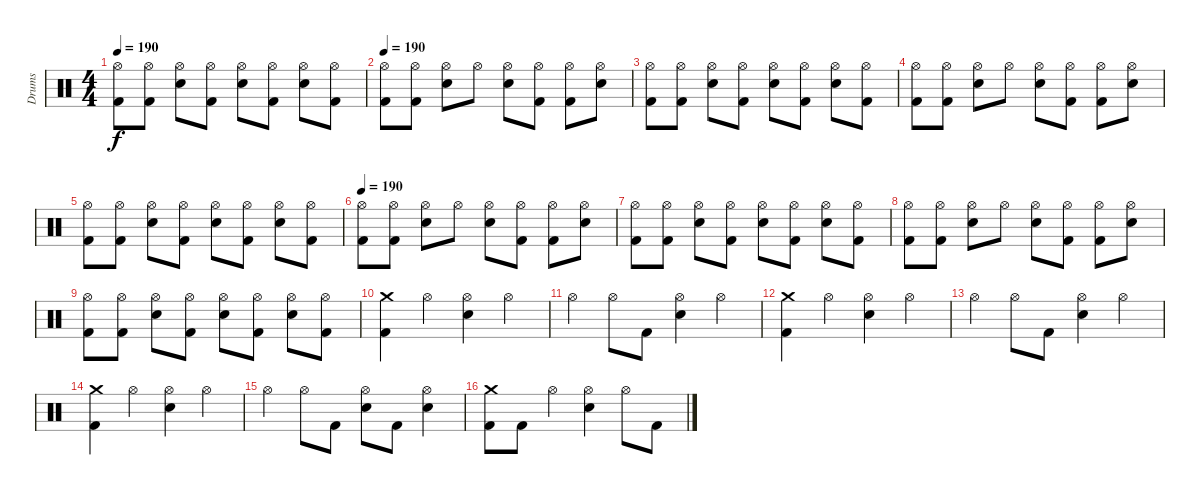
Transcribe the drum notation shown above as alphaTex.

\track ("Drums" "Drums") {instrument percussion}
\staff {score}
\articulation defaults
\ts (4 4)
\tempo 190
\clef neutral
\ks c
("Kick (hit) 2" "Hi-Hat (open)").8{dy f} ("Kick (hit) 2" "Hi-Hat (open)").8 ("Snare (hit) 2" "Hi-Hat (open)").8 ("Kick (hit) 2" "Hi-Hat (open)").8 ("Snare (hit) 2" "Hi-Hat (open)").8 ("Kick (hit) 2" "Hi-Hat (open)").8 ("Snare (hit) 2" "Hi-Hat (open)").8 ("Kick (hit) 2" "Hi-Hat (open)").8 |
\tempo 190
("Kick (hit) 2" "Hi-Hat (open)").8 ("Kick (hit) 2" "Hi-Hat (open)").8 ("Snare (hit) 2" "Hi-Hat (open)").8 "Hi-Hat (open)".8 ("Snare (hit) 2" "Hi-Hat (open)").8 ("Kick (hit) 2" "Hi-Hat (open)").8 ("Kick (hit) 2" "Hi-Hat (open)").8 ("Snare (hit) 2" "Hi-Hat (open)").8 |
("Kick (hit) 2" "Hi-Hat (open)").8 ("Kick (hit) 2" "Hi-Hat (open)").8 ("Snare (hit) 2" "Hi-Hat (open)").8 ("Kick (hit) 2" "Hi-Hat (open)").8 ("Snare (hit) 2" "Hi-Hat (open)").8 ("Kick (hit) 2" "Hi-Hat (open)").8 ("Snare (hit) 2" "Hi-Hat (open)").8 ("Kick (hit) 2" "Hi-Hat (open)").8 |
("Kick (hit) 2" "Hi-Hat (open)").8 ("Kick (hit) 2" "Hi-Hat (open)").8 ("Snare (hit) 2" "Hi-Hat (open)").8 "Hi-Hat (open)".8 ("Snare (hit) 2" "Hi-Hat (open)").8 ("Kick (hit) 2" "Hi-Hat (open)").8 ("Kick (hit) 2" "Hi-Hat (open)").8 ("Snare (hit) 2" "Hi-Hat (open)").8 |
("Kick (hit) 2" "Hi-Hat (open)").8 ("Kick (hit) 2" "Hi-Hat (open)").8 ("Snare (hit) 2" "Hi-Hat (open)").8 ("Kick (hit) 2" "Hi-Hat (open)").8 ("Snare (hit) 2" "Hi-Hat (open)").8 ("Kick (hit) 2" "Hi-Hat (open)").8 ("Snare (hit) 2" "Hi-Hat (open)").8 ("Kick (hit) 2" "Hi-Hat (open)").8 |
\tempo 190
("Kick (hit) 2" "Hi-Hat (open)").8 ("Kick (hit) 2" "Hi-Hat (open)").8 ("Snare (hit) 2" "Hi-Hat (open)").8 "Hi-Hat (open)".8 ("Snare (hit) 2" "Hi-Hat (open)").8 ("Kick (hit) 2" "Hi-Hat (open)").8 ("Kick (hit) 2" "Hi-Hat (open)").8 ("Snare (hit) 2" "Hi-Hat (open)").8 |
("Kick (hit) 2" "Hi-Hat (open)").8 ("Kick (hit) 2" "Hi-Hat (open)").8 ("Snare (hit) 2" "Hi-Hat (open)").8 ("Kick (hit) 2" "Hi-Hat (open)").8 ("Snare (hit) 2" "Hi-Hat (open)").8 ("Kick (hit) 2" "Hi-Hat (open)").8 ("Snare (hit) 2" "Hi-Hat (open)").8 ("Kick (hit) 2" "Hi-Hat (open)").8 |
("Kick (hit) 2" "Hi-Hat (open)").8 ("Kick (hit) 2" "Hi-Hat (open)").8 ("Snare (hit) 2" "Hi-Hat (open)").8 "Hi-Hat (open)".8 ("Snare (hit) 2" "Hi-Hat (open)").8 ("Kick (hit) 2" "Hi-Hat (open)").8 ("Kick (hit) 2" "Hi-Hat (open)").8 ("Snare (hit) 2" "Hi-Hat (open)").8 |
("Kick (hit) 2" "Hi-Hat (open)").8 ("Kick (hit) 2" "Hi-Hat (open)").8 ("Snare (hit) 2" "Hi-Hat (open)").8 ("Kick (hit) 2" "Hi-Hat (open)").8 ("Snare (hit) 2" "Hi-Hat (open)").8 ("Kick (hit) 2" "Hi-Hat (open)").8 ("Snare (hit) 2" "Hi-Hat (open)").8 ("Kick (hit) 2" "Hi-Hat (open)").8 |
("Kick (hit) 2" "Crash medium (hit)").4 "Hi-Hat (open)".4 ("Snare (hit) 2" "Hi-Hat (open)").4 "Hi-Hat (open)".4 |
"Hi-Hat (open)".4 "Hi-Hat (open)".8 "Kick (hit) 2".8 ("Snare (hit) 2" "Hi-Hat (open)").4 "Hi-Hat (open)".4 |
("Kick (hit) 2" "Crash medium (hit)").4 "Hi-Hat (open)".4 ("Snare (hit) 2" "Hi-Hat (open)").4 "Hi-Hat (open)".4 |
"Hi-Hat (open)".4 "Hi-Hat (open)".8 "Kick (hit) 2".8 ("Snare (hit) 2" "Hi-Hat (open)").4 "Hi-Hat (open)".4 |
("Kick (hit) 2" "Crash medium (hit)").4 "Hi-Hat (open)".4 ("Snare (hit) 2" "Hi-Hat (open)").4 "Hi-Hat (open)".4 |
"Hi-Hat (open)".4 "Hi-Hat (open)".8 "Kick (hit) 2".8 ("Snare (hit) 2" "Hi-Hat (open)").8 "Kick (hit) 2".8 ("Snare (hit) 2" "Hi-Hat (open)").4 |
("Kick (hit) 2" "Crash medium (hit)").8 "Kick (hit) 2".8 "Hi-Hat (open)".4 ("Snare (hit) 2" "Hi-Hat (open)").4 "Hi-Hat (open)".8 "Kick (hit) 2".8
